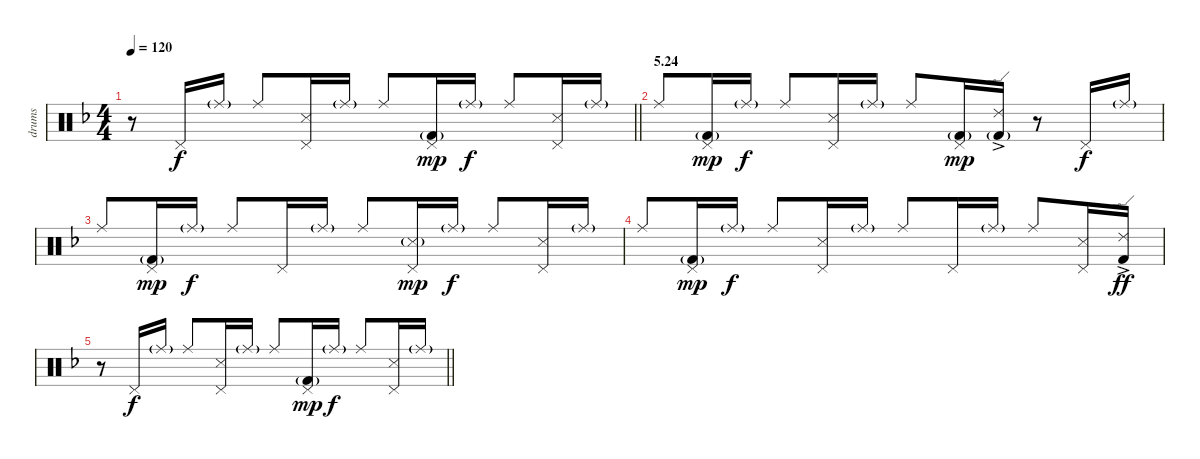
\track ("drums" "drums") {instrument percussion}
\staff {score}
\articulation defaults
\ts (4 4)
\tempo 120
\clef neutral
\barLineRight lightlight
\ks f
r.8{dy ff} "Pedal Hi-Hat (hit)".16{dy f} "Ride (middle)"{g}.16 "Ride (middle)".8 ("Pedal Hi-Hat (hit)" "Snare (side stick) 3").16 "Ride (middle)"{g}.16 "Ride (middle)".8 ("Pedal Hi-Hat (hit)" "Kick (hit) 2"{g}).16{dy mp} "Ride (middle)"{g}.16{dy f} "Ride (middle)".8 ("Pedal Hi-Hat (hit)" "Snare (side stick) 3").16 "Ride (middle)"{g}.16 |
\section ("" "5.24")
"Ride (middle)".8 ("Pedal Hi-Hat (hit)" "Kick (hit) 2"{g}).16{dy mp} "Ride (middle)"{g}.16{dy f} "Ride (middle)".8 ("Pedal Hi-Hat (hit)" "Snare (side stick) 3").16 "Ride (middle)"{g}.16 "Ride (middle)".8 ("Pedal Hi-Hat (hit)" "Kick (hit) 2"{g}).16{dy mp} ("Ride (edge) 2"{ac} "Kick (hit) 2"{g}).16 r.8 "Pedal Hi-Hat (hit)".16{dy f} "Ride (middle)"{g}.16 |
"Ride (middle)".8 ("Pedal Hi-Hat (hit)" "Kick (hit) 2"{g}).16{dy mp} "Ride (middle)"{g}.16{dy f} "Ride (middle)".8 "Pedal Hi-Hat (hit)".16 "Ride (middle)"{g}.16 "Ride (middle)".8 ("Pedal Hi-Hat (hit)" "Snare (side stick) 3"{g}).16{dy mp} "Ride (middle)"{g}.16{dy f} "Ride (middle)".8 ("Pedal Hi-Hat (hit)" "Snare (side stick) 3").16 "Ride (middle)"{g}.16 |
"Ride (middle)".8 ("Pedal Hi-Hat (hit)" "Kick (hit) 2"{g}).16{dy mp} "Ride (middle)"{g}.16{dy f} "Ride (middle)".8 ("Pedal Hi-Hat (hit)" "Snare (side stick) 3").16 "Ride (middle)"{g}.16 "Ride (middle)".8 "Pedal Hi-Hat (hit)".16 "Ride (middle)"{g}.16 "Ride (middle)".8 ("Pedal Hi-Hat (hit)" "Snare (side stick) 3").16 ("Ride (edge) 2"{ac} "Kick (hit) 2").16{dy ff} |
\barLineRight lightlight
r.8 "Pedal Hi-Hat (hit)".16{dy f} "Ride (middle)"{g}.16 "Ride (middle)".8 ("Pedal Hi-Hat (hit)" "Snare (side stick) 3").16 "Ride (middle)"{g}.16 "Ride (middle)".8 ("Pedal Hi-Hat (hit)" "Kick (hit) 2"{g}).16{dy mp} "Ride (middle)"{g}.16{dy f} "Ride (middle)".8 ("Pedal Hi-Hat (hit)" "Snare (side stick) 3").16 "Ride (middle)"{g}.16
